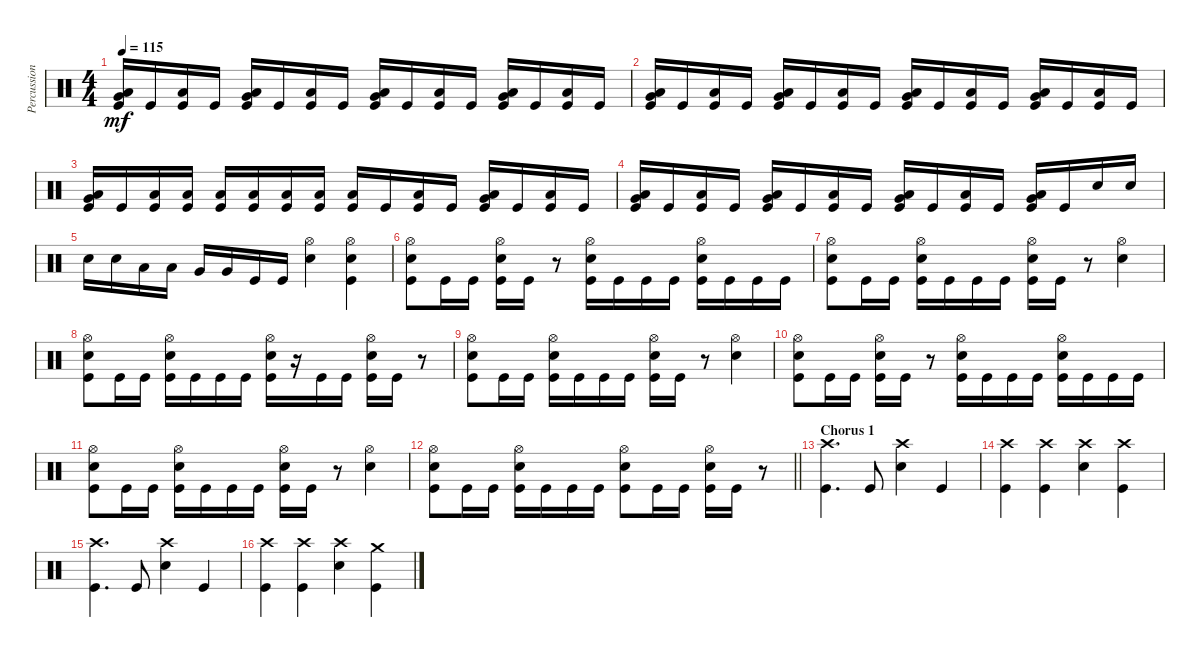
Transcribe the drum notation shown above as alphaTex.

\track ("Percussion" "Percussion") {instrument percussion}
\staff {score}
\articulation defaults
\ts (4 4)
\tempo 115
\clef neutral
\ks c
("Very Low Tom (hit)" "Low Floor Tom (hit)" "Kick (hit)").16{dy mf} "Kick (hit)".16 ("Low Floor Tom (hit)" "Kick (hit)").16 "Kick (hit)".16 ("Very Low Tom (hit)" "Low Floor Tom (hit)" "Kick (hit)").16 "Kick (hit)".16 ("Low Floor Tom (hit)" "Kick (hit)").16 "Kick (hit)".16 ("Very Low Tom (hit)" "Low Floor Tom (hit)" "Kick (hit)").16 "Kick (hit)".16 ("Low Floor Tom (hit)" "Kick (hit)").16 "Kick (hit)".16 ("Very Low Tom (hit)" "Low Floor Tom (hit)" "Kick (hit)").16 "Kick (hit)".16 ("Low Floor Tom (hit)" "Kick (hit)").16 "Kick (hit)".16 |
("Very Low Tom (hit)" "Low Floor Tom (hit)" "Kick (hit)").16 "Kick (hit)".16 ("Low Floor Tom (hit)" "Kick (hit)").16 "Kick (hit)".16 ("Very Low Tom (hit)" "Low Floor Tom (hit)" "Kick (hit)").16 "Kick (hit)".16 ("Low Floor Tom (hit)" "Kick (hit)").16 "Kick (hit)".16 ("Very Low Tom (hit)" "Low Floor Tom (hit)" "Kick (hit)").16 "Kick (hit)".16 ("Low Floor Tom (hit)" "Kick (hit)").16 "Kick (hit)".16 ("Very Low Tom (hit)" "Low Floor Tom (hit)" "Kick (hit)").16 "Kick (hit)".16 ("Low Floor Tom (hit)" "Kick (hit)").16 "Kick (hit)".16 |
("Very Low Tom (hit)" "Low Floor Tom (hit)" "Kick (hit)").16 "Kick (hit)".16 ("Low Floor Tom (hit)" "Kick (hit)").16 ("Low Floor Tom (hit)" "Kick (hit)").16 ("Low Floor Tom (hit)" "Kick (hit)").16 ("Low Floor Tom (hit)" "Kick (hit)").16 ("Low Floor Tom (hit)" "Kick (hit)").16 ("Low Floor Tom (hit)" "Kick (hit)").16 ("Low Floor Tom (hit)" "Kick (hit)").16 "Kick (hit)".16 ("Low Floor Tom (hit)" "Kick (hit)").16 "Kick (hit)".16 ("Very Low Tom (hit)" "Low Floor Tom (hit)" "Kick (hit)").16 "Kick (hit)".16 ("Low Floor Tom (hit)" "Kick (hit)").16 "Kick (hit)".16 |
("Very Low Tom (hit)" "Low Floor Tom (hit)" "Kick (hit)").16 "Kick (hit)".16 ("Low Floor Tom (hit)" "Kick (hit)").16 "Kick (hit)".16 ("Very Low Tom (hit)" "Low Floor Tom (hit)" "Kick (hit)").16 "Kick (hit)".16 ("Low Floor Tom (hit)" "Kick (hit)").16 "Kick (hit)".16 ("Very Low Tom (hit)" "Low Floor Tom (hit)" "Kick (hit)").16 "Kick (hit)".16 ("Low Floor Tom (hit)" "Kick (hit)").16 "Kick (hit)".16 ("Very Low Tom (hit)" "Low Floor Tom (hit)" "Kick (hit)").16 "Kick (hit)".16 "Snare (hit) 2".16 "Snare (hit) 2".16 |
"Snare (hit) 2".16 "Snare (hit) 2".16 "Low Tom (hit)".16 "Low Tom (hit)".16 "Very Low Tom (hit)".16 "Very Low Tom (hit)".16 "Kick (hit)".16 "Kick (hit)".16 ("Hi-Hat (open)" "Snare (hit) 2").4 ("Snare (hit) 2" "Hi-Hat (open)" "Kick (hit)").4 |
("Snare (hit) 2" "Kick (hit)" "Hi-Hat (open)").8 "Kick (hit)".16 "Kick (hit)".16 ("Snare (hit) 2" "Hi-Hat (open)" "Kick (hit)").16 "Kick (hit)".16 r.8 ("Hi-Hat (open)" "Snare (hit) 2" "Kick (hit)").16 "Kick (hit)".16 "Kick (hit)".16 "Kick (hit)".16 ("Snare (hit) 2" "Hi-Hat (open)" "Kick (hit)").16 "Kick (hit)".16 "Kick (hit)".16 "Kick (hit)".16 |
("Hi-Hat (open)" "Kick (hit)" "Snare (hit) 2").8 "Kick (hit)".16 "Kick (hit)".16 ("Snare (hit) 2" "Hi-Hat (open)" "Kick (hit)").16 "Kick (hit)".16 "Kick (hit)".16 "Kick (hit)".16 ("Snare (hit) 2" "Hi-Hat (open)" "Kick (hit)").16 "Kick (hit)".16 r.8 ("Snare (hit) 2" "Hi-Hat (open)").4 |
("Snare (hit) 2" "Kick (hit)" "Hi-Hat (open)").8 "Kick (hit)".16 "Kick (hit)".16 ("Snare (hit) 2" "Hi-Hat (open)" "Kick (hit)").16 "Kick (hit)".16 "Kick (hit)".16 "Kick (hit)".16 ("Snare (hit) 2" "Hi-Hat (open)" "Kick (hit)").16 r.16 "Kick (hit)".16 "Kick (hit)".16 ("Snare (hit) 2" "Hi-Hat (open)" "Kick (hit)").16 "Kick (hit)".16 r.8 |
("Hi-Hat (open)" "Kick (hit)" "Snare (hit) 2").8 "Kick (hit)".16 "Kick (hit)".16 ("Snare (hit) 2" "Hi-Hat (open)" "Kick (hit)").16 "Kick (hit)".16 "Kick (hit)".16 "Kick (hit)".16 ("Snare (hit) 2" "Hi-Hat (open)" "Kick (hit)").16 "Kick (hit)".16 r.8 ("Snare (hit) 2" "Hi-Hat (open)").4 |
("Snare (hit) 2" "Hi-Hat (open)" "Kick (hit)").8 "Kick (hit)".16 "Kick (hit)".16 ("Hi-Hat (open)" "Snare (hit) 2" "Kick (hit)").16 "Kick (hit)".16 r.8 ("Snare (hit) 2" "Hi-Hat (open)" "Kick (hit)").16 "Kick (hit)".16 "Kick (hit)".16 "Kick (hit)".16 ("Snare (hit) 2" "Hi-Hat (open)" "Kick (hit)").16 "Kick (hit)".16 "Kick (hit)".16 "Kick (hit)".16 |
("Hi-Hat (open)" "Kick (hit)" "Snare (hit) 2").8 "Kick (hit)".16 "Kick (hit)".16 ("Snare (hit) 2" "Hi-Hat (open)" "Kick (hit)").16 "Kick (hit)".16 "Kick (hit)".16 "Kick (hit)".16 ("Snare (hit) 2" "Hi-Hat (open)" "Kick (hit)").16 "Kick (hit)".16 r.8 ("Snare (hit) 2" "Hi-Hat (open)").4 |
\barLineRight lightlight
("Snare (hit) 2" "Hi-Hat (open)" "Kick (hit)").8 "Kick (hit)".16 "Kick (hit)".16 ("Snare (hit) 2" "Hi-Hat (open)" "Kick (hit)").16 "Kick (hit)".16 "Kick (hit)".16 "Kick (hit)".16 ("Kick (hit)" "Snare (hit) 2" "Hi-Hat (open)").8 "Kick (hit)".16 "Kick (hit)".16 ("Snare (hit) 2" "Hi-Hat (open)" "Kick (hit)").16 "Kick (hit)".16 r.8 |
\section ("" "Chorus 1")
("Crash high (hit)" "Kick (hit)").4{d} "Kick (hit)".8 ("Snare (hit) 2" "Crash high (hit)").4 "Kick (hit)".4 |
("Crash high (hit)" "Kick (hit)").4 ("Crash high (hit)" "Kick (hit)").4 ("Snare (hit) 2" "Crash high (hit)").4 ("Crash high (hit)" "Kick (hit)").4 |
("Crash high (hit)" "Kick (hit)").4{d} "Kick (hit)".8 ("Snare (hit) 2" "Crash high (hit)").4 "Kick (hit)".4 |
("Crash high (hit)" "Kick (hit)").4 ("Crash high (hit)" "Kick (hit)").4 ("Snare (hit) 2" "Crash high (hit)").4 ("Crash medium (hit)" "Kick (hit)").4
